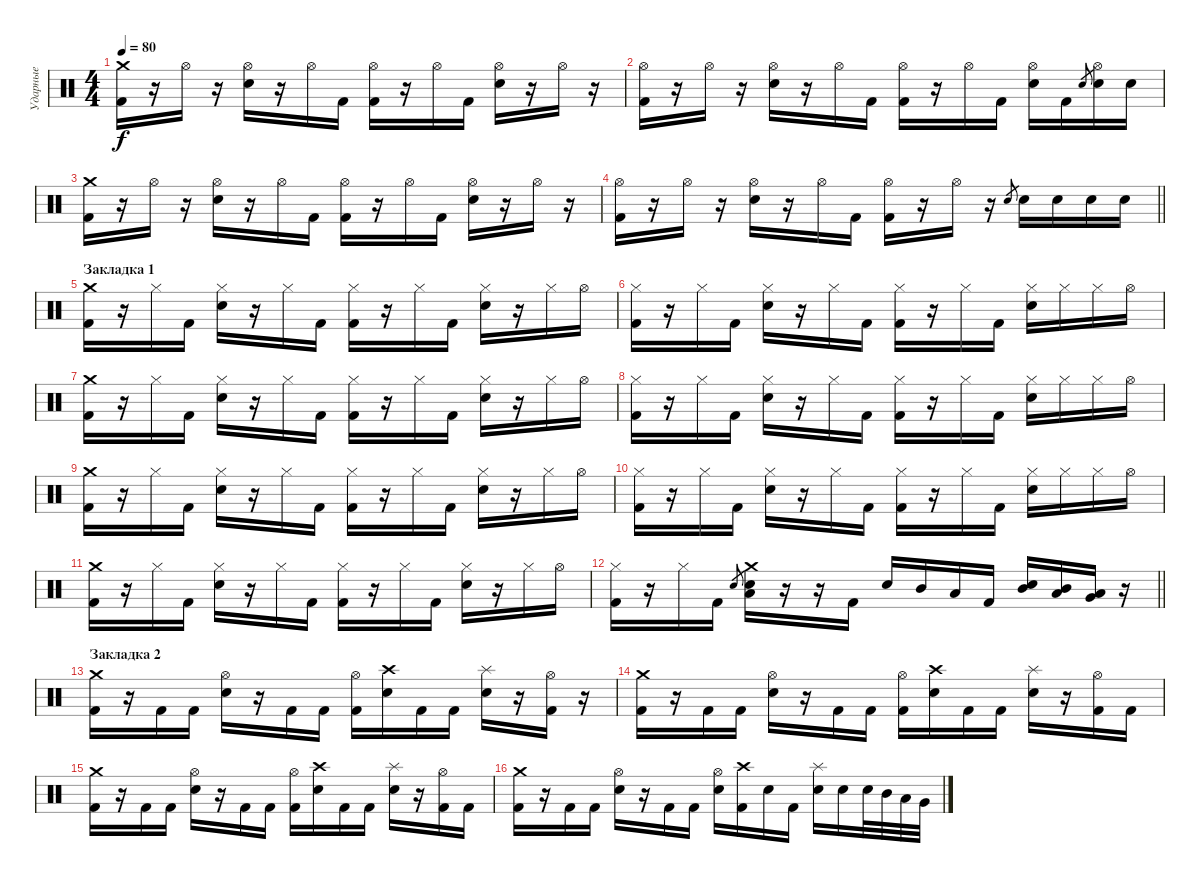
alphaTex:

\track ("Ударные" "Ударные") {instrument percussion}
\staff {score}
\articulation defaults
\ts (4 4)
\tempo 80
\clef neutral
\ks c
("Crash medium (hit)" "Kick (hit) 2").16{dy f} r.16 "Hi-Hat (open)".16 r.16 ("Hi-Hat (open)" "Snare (hit) 2").16 r.16 "Hi-Hat (open)".16 "Kick (hit) 2".16 ("Hi-Hat (open)" "Kick (hit) 2").16 r.16 "Hi-Hat (open)".16 "Kick (hit) 2".16 ("Hi-Hat (open)" "Snare (hit) 2").16 r.16 "Hi-Hat (open)".16 r.16 |
("Hi-Hat (open)" "Kick (hit) 2").16 r.16 "Hi-Hat (open)".16 r.16 ("Hi-Hat (open)" "Snare (hit) 2").16 r.16 "Hi-Hat (open)".16 "Kick (hit) 2".16 ("Hi-Hat (open)" "Kick (hit) 2").16 r.16 "Hi-Hat (open)".16 "Kick (hit) 2".16 ("Hi-Hat (open)" "Snare (hit) 2").16 "Kick (hit) 2".16 "Snare (hit) 2".8{gr} ("Hi-Hat (open)" "Snare (hit) 2").16 "Snare (hit) 2".16 |
("Crash medium (hit)" "Kick (hit) 2").16 r.16 "Hi-Hat (open)".16 r.16 ("Hi-Hat (open)" "Snare (hit) 2").16 r.16 "Hi-Hat (open)".16 "Kick (hit) 2".16 ("Hi-Hat (open)" "Kick (hit) 2").16 r.16 "Hi-Hat (open)".16 "Kick (hit) 2".16 ("Hi-Hat (open)" "Snare (hit) 2").16 r.16 "Hi-Hat (open)".16 r.16 |
\barLineRight lightlight
("Hi-Hat (open)" "Kick (hit) 2").16 r.16 "Hi-Hat (open)".16 r.16 ("Hi-Hat (open)" "Snare (hit) 2").16 r.16 "Hi-Hat (open)".16 "Kick (hit) 2".16 ("Hi-Hat (open)" "Kick (hit) 2").16 r.16 "Hi-Hat (open)".16 r.16 "Snare (hit) 2".8{gr} "Snare (hit) 2".16 "Snare (hit) 2".16 "Snare (hit) 2".16 "Snare (hit) 2".16 |
\section ("" "Закладка 1")
("Crash medium (hit)" "Kick (hit) 2").16 r.16 "Hi-Hat (closed)".16 "Kick (hit) 2".16 ("Hi-Hat (closed)" "Snare (hit) 2").16 r.16 "Hi-Hat (closed)".16 "Kick (hit) 2".16 ("Hi-Hat (closed)" "Kick (hit) 2").16 r.16 "Hi-Hat (closed)".16 "Kick (hit) 2".16 ("Hi-Hat (closed)" "Snare (hit) 2").16 r.16 "Hi-Hat (closed)".16 "Hi-Hat (open)".16 |
("Hi-Hat (closed)" "Kick (hit) 2").16 r.16 "Hi-Hat (closed)".16 "Kick (hit) 2".16 ("Hi-Hat (closed)" "Snare (hit) 2").16 r.16 "Hi-Hat (closed)".16 "Kick (hit) 2".16 ("Hi-Hat (closed)" "Kick (hit) 2").16 r.16 "Hi-Hat (closed)".16 "Kick (hit) 2".16 ("Hi-Hat (closed)" "Snare (hit) 2").16 "Hi-Hat (closed)".16 "Hi-Hat (closed)".16 "Hi-Hat (open)".16 |
("Crash medium (hit)" "Kick (hit) 2").16 r.16 "Hi-Hat (closed)".16 "Kick (hit) 2".16 ("Hi-Hat (closed)" "Snare (hit) 2").16 r.16 "Hi-Hat (closed)".16 "Kick (hit) 2".16 ("Hi-Hat (closed)" "Kick (hit) 2").16 r.16 "Hi-Hat (closed)".16 "Kick (hit) 2".16 ("Hi-Hat (closed)" "Snare (hit) 2").16 r.16 "Hi-Hat (closed)".16 "Hi-Hat (open)".16 |
("Hi-Hat (closed)" "Kick (hit) 2").16 r.16 "Hi-Hat (closed)".16 "Kick (hit) 2".16 ("Hi-Hat (closed)" "Snare (hit) 2").16 r.16 "Hi-Hat (closed)".16 "Kick (hit) 2".16 ("Hi-Hat (closed)" "Kick (hit) 2").16 r.16 "Hi-Hat (closed)".16 "Kick (hit) 2".16 ("Hi-Hat (closed)" "Snare (hit) 2").16 "Hi-Hat (closed)".16 "Hi-Hat (closed)".16 "Hi-Hat (open)".16 |
("Crash medium (hit)" "Kick (hit) 2").16 r.16 "Hi-Hat (closed)".16 "Kick (hit) 2".16 ("Hi-Hat (closed)" "Snare (hit) 2").16 r.16 "Hi-Hat (closed)".16 "Kick (hit) 2".16 ("Hi-Hat (closed)" "Kick (hit) 2").16 r.16 "Hi-Hat (closed)".16 "Kick (hit) 2".16 ("Hi-Hat (closed)" "Snare (hit) 2").16 r.16 "Hi-Hat (closed)".16 "Hi-Hat (open)".16 |
("Hi-Hat (closed)" "Kick (hit) 2").16 r.16 "Hi-Hat (closed)".16 "Kick (hit) 2".16 ("Hi-Hat (closed)" "Snare (hit) 2").16 r.16 "Hi-Hat (closed)".16 "Kick (hit) 2".16 ("Hi-Hat (closed)" "Kick (hit) 2").16 r.16 "Hi-Hat (closed)".16 "Kick (hit) 2".16 ("Hi-Hat (closed)" "Snare (hit) 2").16 "Hi-Hat (closed)".16 "Hi-Hat (closed)".16 "Hi-Hat (open)".16 |
("Crash medium (hit)" "Kick (hit) 2").16 r.16 "Hi-Hat (closed)".16 "Kick (hit) 2".16 ("Hi-Hat (closed)" "Snare (hit) 2").16 r.16 "Hi-Hat (closed)".16 "Kick (hit) 2".16 ("Hi-Hat (closed)" "Kick (hit) 2").16 r.16 "Hi-Hat (closed)".16 "Kick (hit) 2".16 ("Hi-Hat (closed)" "Snare (hit) 2").16 r.16 "Hi-Hat (closed)".16 "Hi-Hat (open)".16 |
\barLineRight lightlight
("Hi-Hat (closed)" "Kick (hit) 2").16 r.16 "Hi-Hat (closed)".16 "Kick (hit) 2".16 "Snare (hit) 2".8{gr} ("Crash medium (hit)" "Snare (hit) 2" "Low Floor Tom (hit)").16 r.16 r.16 "Kick (hit) 2".16 "Snare (hit) 2".16 "Mid Tom (hit)".16 "Low Tom (hit)".16 "Kick (hit) 2".16 ("Snare (hit) 2" "Mid Tom (hit)").16 ("Mid Tom (hit)" "Low Tom (hit)").16 ("Very Low Tom (hit)" "Low Floor Tom (hit)").16 r.16 |
\section ("" "Закладка 2")
("Crash medium (hit)" "Kick (hit) 2").16 r.16 "Kick (hit) 2".16 "Kick (hit) 2".16 ("Hi-Hat (open)" "Snare (hit) 2").16 r.16 "Kick (hit) 2".16 "Kick (hit) 2".16 ("Hi-Hat (open)" "Kick (hit) 2").16 ("Crash high (hit)" "Snare (hit) 2").16 "Kick (hit) 2".16 "Kick (hit) 2".16 ("Splash (hit)" "Snare (hit) 2").16 r.16 ("Hi-Hat (open)" "Kick (hit) 2").16 r.16 |
("Crash medium (hit)" "Kick (hit) 2").16 r.16 "Kick (hit) 2".16 "Kick (hit) 2".16 ("Hi-Hat (open)" "Snare (hit) 2").16 r.16 "Kick (hit) 2".16 "Kick (hit) 2".16 ("Hi-Hat (open)" "Kick (hit) 2").16 ("Crash high (hit)" "Snare (hit) 2").16 "Kick (hit) 2".16 "Kick (hit) 2".16 ("Splash (hit)" "Snare (hit) 2").16 r.16 ("Hi-Hat (open)" "Kick (hit) 2").16 "Kick (hit) 2".16 |
("Crash medium (hit)" "Kick (hit) 2").16 r.16 "Kick (hit) 2".16 "Kick (hit) 2".16 ("Hi-Hat (open)" "Snare (hit) 2").16 r.16 "Kick (hit) 2".16 "Kick (hit) 2".16 ("Hi-Hat (open)" "Kick (hit) 2").16 ("Crash high (hit)" "Snare (hit) 2").16 "Kick (hit) 2".16 "Kick (hit) 2".16 ("Splash (hit)" "Snare (hit) 2").16 r.16 ("Hi-Hat (open)" "Kick (hit) 2").16 "Kick (hit) 2".16 |
("Crash medium (hit)" "Kick (hit) 2").16 r.16 "Kick (hit) 2".16 "Kick (hit) 2".16 ("Hi-Hat (open)" "Snare (hit) 2").16 r.16 "Kick (hit) 2".16 "Kick (hit) 2".16 ("Hi-Hat (open)" "Snare (hit) 2").16 ("Crash high (hit)" "Kick (hit) 2").16 "Snare (hit) 2".16 "Kick (hit) 2".16 ("Splash (hit)" "Snare (hit) 2").16 "Snare (hit) 2".16 "Snare (hit) 2".32 "Mid Tom (hit)".32 "Low Tom (hit)".32 "Very Low Tom (hit)".32
